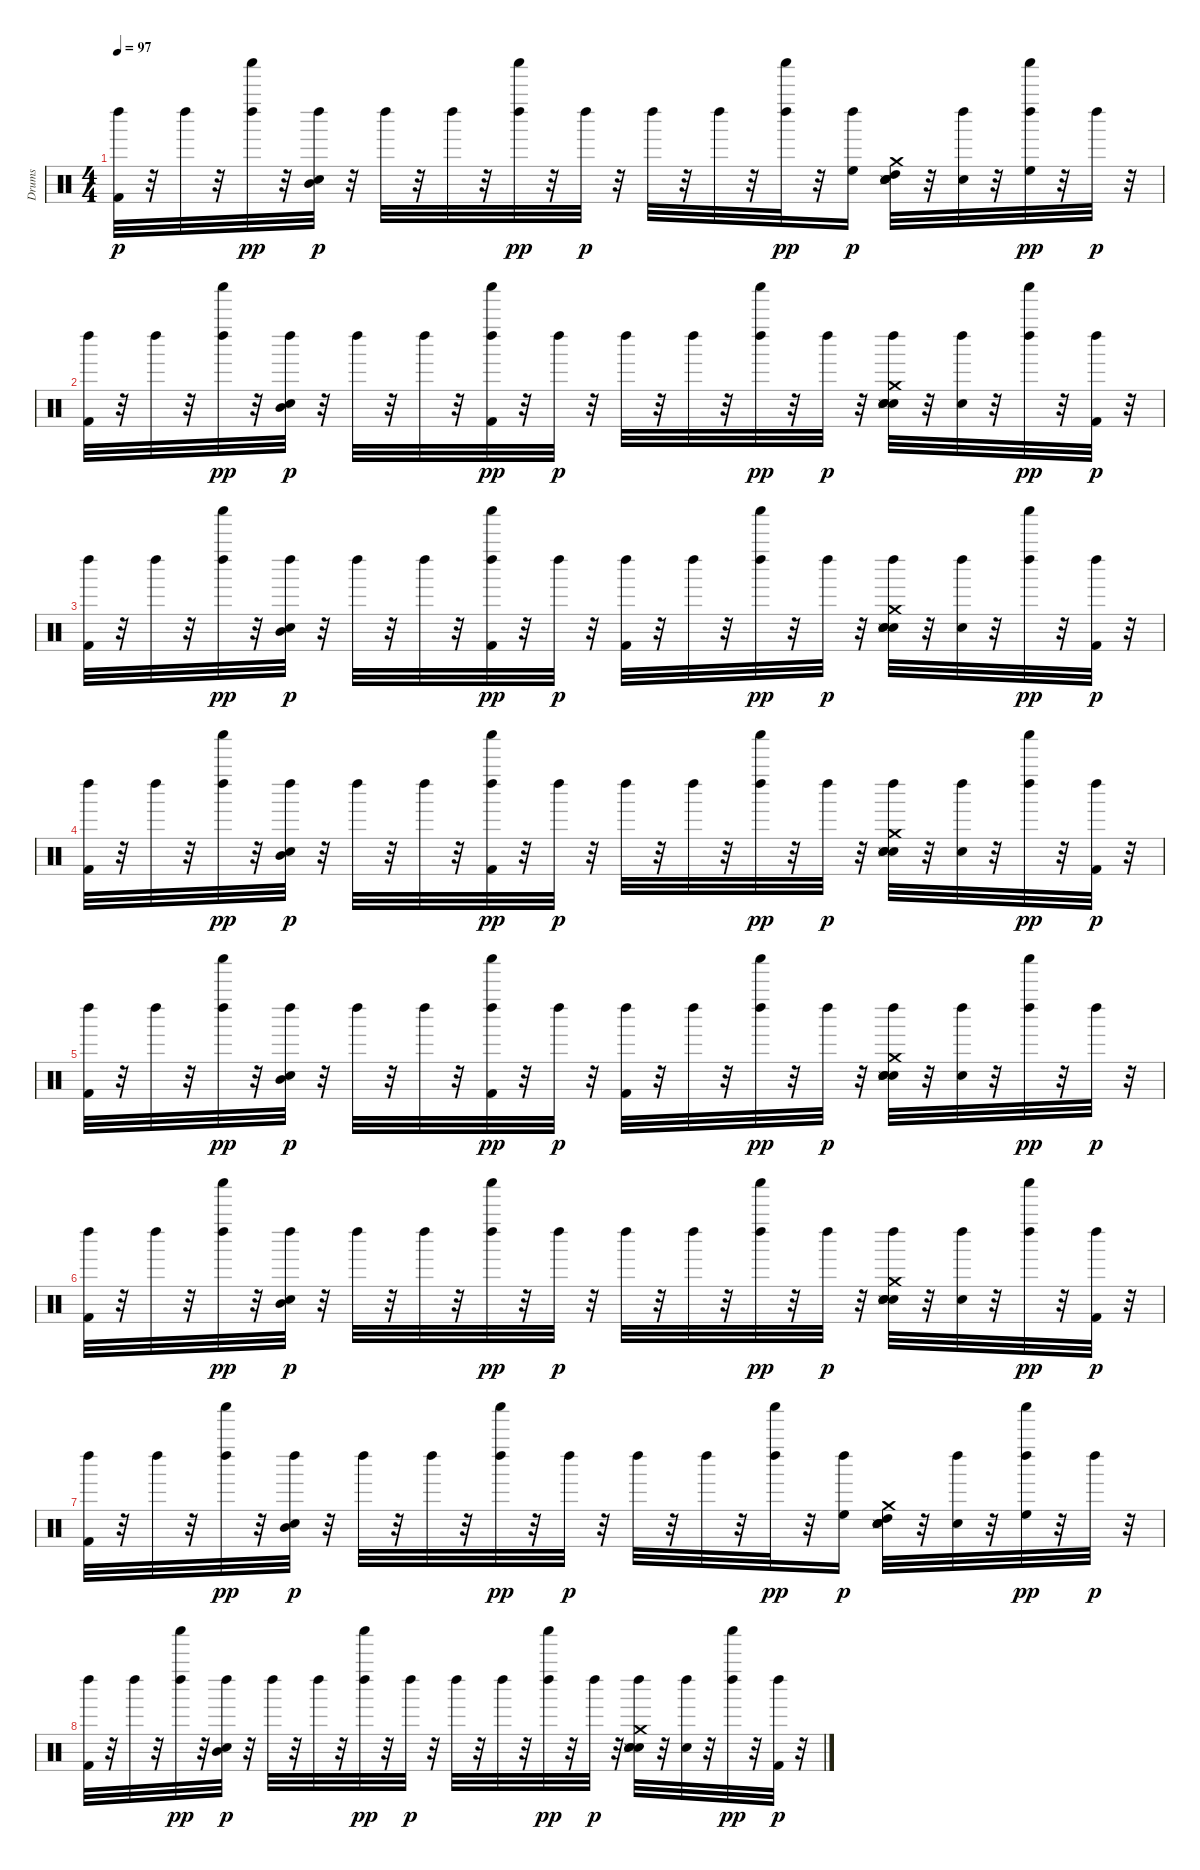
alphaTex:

\track ("Drums" "Drums") {instrument percussion}
\staff {score}
\articulation defaults
\ts (4 4)
\tempo 97
\clef neutral
\ks c
("Kick (hit) 2" "Left Maraca (hit)").32{dy p} r.32 "Left Maraca (hit)".32 r.32 ("Shaker (hit)" "Left Maraca (hit)").32{dy pp} r.32 ("Snare (hit) 2" "Mid Tom (hit)" "Left Maraca (hit)").32{dy p} r.32 "Left Maraca (hit)".32 r.32 "Left Maraca (hit)".32 r.32 ("Shaker (hit)" "Left Maraca (hit)").32{dy pp} r.32 "Left Maraca (hit)".32{dy p} r.32 "Left Maraca (hit)".32 r.32 "Left Maraca (hit)".32 r.32 ("Shaker (hit)" "Left Maraca (hit)").32{dy pp} r.32 ("High Floor Tom (hit)" "Left Maraca (hit)").16{dy p} ("Snare (hit) 2" "Electric Snare (hit)" "Hand Clap (hit)" "High Tom (hit)" "Snare (side stick) 3" "Crash medium (hit)").32 r.32 ("Left Maraca (hit)" "Hand Clap (hit)").32 r.32 ("High Floor Tom (hit)" "Shaker (hit)" "Left Maraca (hit)").32{dy pp} r.32 "Left Maraca (hit)".32{dy p} r.32 |
("Kick (hit) 2" "Left Maraca (hit)").32 r.32 "Left Maraca (hit)".32 r.32 ("Shaker (hit)" "Left Maraca (hit)").32{dy pp} r.32 ("Snare (hit) 2" "Mid Tom (hit)" "Left Maraca (hit)").32{dy p} r.32 "Left Maraca (hit)".32 r.32 "Left Maraca (hit)".32 r.32 ("Kick (hit) 2" "Shaker (hit)" "Left Maraca (hit)").32{dy pp} r.32 "Left Maraca (hit)".32{dy p} r.32 "Left Maraca (hit)".32 r.32 "Left Maraca (hit)".32 r.32 ("Shaker (hit)" "Left Maraca (hit)").32{dy pp} r.32 "Left Maraca (hit)".32{dy p} r.32 ("Snare (hit) 2" "Electric Snare (hit)" "Hand Clap (hit)" "Snare (side stick) 3" "Crash medium (hit)" "Left Maraca (hit)").32 r.32 ("Left Maraca (hit)" "Hand Clap (hit)").32 r.32 ("Shaker (hit)" "Left Maraca (hit)").32{dy pp} r.32 ("Kick (hit) 2" "Left Maraca (hit)").32{dy p} r.32 |
("Kick (hit) 2" "Left Maraca (hit)").32 r.32 "Left Maraca (hit)".32 r.32 ("Shaker (hit)" "Left Maraca (hit)").32{dy pp} r.32 ("Snare (hit) 2" "Mid Tom (hit)" "Left Maraca (hit)").32{dy p} r.32 "Left Maraca (hit)".32 r.32 "Left Maraca (hit)".32 r.32 ("Kick (hit) 2" "Shaker (hit)" "Left Maraca (hit)").32{dy pp} r.32 "Left Maraca (hit)".32{dy p} r.32 ("Kick (hit) 2" "Left Maraca (hit)").32 r.32 "Left Maraca (hit)".32 r.32 ("Shaker (hit)" "Left Maraca (hit)").32{dy pp} r.32 "Left Maraca (hit)".32{dy p} r.32 ("Snare (hit) 2" "Electric Snare (hit)" "Hand Clap (hit)" "Snare (side stick) 3" "Crash medium (hit)" "Left Maraca (hit)").32 r.32 ("Left Maraca (hit)" "Hand Clap (hit)").32 r.32 ("Shaker (hit)" "Left Maraca (hit)").32{dy pp} r.32 ("Kick (hit) 2" "Left Maraca (hit)").32{dy p} r.32 |
("Kick (hit) 2" "Left Maraca (hit)").32 r.32 "Left Maraca (hit)".32 r.32 ("Shaker (hit)" "Left Maraca (hit)").32{dy pp} r.32 ("Snare (hit) 2" "Mid Tom (hit)" "Left Maraca (hit)").32{dy p} r.32 "Left Maraca (hit)".32 r.32 "Left Maraca (hit)".32 r.32 ("Kick (hit) 2" "Shaker (hit)" "Left Maraca (hit)").32{dy pp} r.32 "Left Maraca (hit)".32{dy p} r.32 "Left Maraca (hit)".32 r.32 "Left Maraca (hit)".32 r.32 ("Shaker (hit)" "Left Maraca (hit)").32{dy pp} r.32 "Left Maraca (hit)".32{dy p} r.32 ("Snare (hit) 2" "Electric Snare (hit)" "Hand Clap (hit)" "Snare (side stick) 3" "Crash medium (hit)" "Left Maraca (hit)").32 r.32 ("Left Maraca (hit)" "Hand Clap (hit)").32 r.32 ("Shaker (hit)" "Left Maraca (hit)").32{dy pp} r.32 ("Kick (hit) 2" "Left Maraca (hit)").32{dy p} r.32 |
("Kick (hit) 2" "Left Maraca (hit)").32 r.32 "Left Maraca (hit)".32 r.32 ("Shaker (hit)" "Left Maraca (hit)").32{dy pp} r.32 ("Snare (hit) 2" "Mid Tom (hit)" "Left Maraca (hit)").32{dy p} r.32 "Left Maraca (hit)".32 r.32 "Left Maraca (hit)".32 r.32 ("Kick (hit) 2" "Shaker (hit)" "Left Maraca (hit)").32{dy pp} r.32 "Left Maraca (hit)".32{dy p} r.32 ("Kick (hit) 2" "Left Maraca (hit)").32 r.32 "Left Maraca (hit)".32 r.32 ("Shaker (hit)" "Left Maraca (hit)").32{dy pp} r.32 "Left Maraca (hit)".32{dy p} r.32 ("Snare (hit) 2" "Electric Snare (hit)" "Hand Clap (hit)" "Snare (side stick) 3" "Crash medium (hit)" "Left Maraca (hit)").32 r.32 ("Left Maraca (hit)" "Hand Clap (hit)").32 r.32 ("Shaker (hit)" "Left Maraca (hit)").32{dy pp} r.32 "Left Maraca (hit)".32{dy p} r.32 |
("Kick (hit) 2" "Left Maraca (hit)").32 r.32 "Left Maraca (hit)".32 r.32 ("Shaker (hit)" "Left Maraca (hit)").32{dy pp} r.32 ("Snare (hit) 2" "Mid Tom (hit)" "Left Maraca (hit)").32{dy p} r.32 "Left Maraca (hit)".32 r.32 "Left Maraca (hit)".32 r.32 ("Shaker (hit)" "Left Maraca (hit)").32{dy pp} r.32 "Left Maraca (hit)".32{dy p} r.32 "Left Maraca (hit)".32 r.32 "Left Maraca (hit)".32 r.32 ("Shaker (hit)" "Left Maraca (hit)").32{dy pp} r.32 "Left Maraca (hit)".32{dy p} r.32 ("Snare (hit) 2" "Electric Snare (hit)" "Hand Clap (hit)" "Snare (side stick) 3" "Crash medium (hit)" "Left Maraca (hit)").32 r.32 ("Left Maraca (hit)" "Hand Clap (hit)").32 r.32 ("Shaker (hit)" "Left Maraca (hit)").32{dy pp} r.32 ("Kick (hit) 2" "Left Maraca (hit)").32{dy p} r.32 |
("Kick (hit) 2" "Left Maraca (hit)").32 r.32 "Left Maraca (hit)".32 r.32 ("Shaker (hit)" "Left Maraca (hit)").32{dy pp} r.32 ("Snare (hit) 2" "Mid Tom (hit)" "Left Maraca (hit)").32{dy p} r.32 "Left Maraca (hit)".32 r.32 "Left Maraca (hit)".32 r.32 ("Shaker (hit)" "Left Maraca (hit)").32{dy pp} r.32 "Left Maraca (hit)".32{dy p} r.32 "Left Maraca (hit)".32 r.32 "Left Maraca (hit)".32 r.32 ("Shaker (hit)" "Left Maraca (hit)").32{dy pp} r.32 ("High Floor Tom (hit)" "Left Maraca (hit)").16{dy p} ("Snare (hit) 2" "Electric Snare (hit)" "Hand Clap (hit)" "High Tom (hit)" "Snare (side stick) 3" "Crash medium (hit)").32 r.32 ("Left Maraca (hit)" "Hand Clap (hit)").32 r.32 ("High Floor Tom (hit)" "Shaker (hit)" "Left Maraca (hit)").32{dy pp} r.32 "Left Maraca (hit)".32{dy p} r.32 |
("Kick (hit) 2" "Left Maraca (hit)").32 r.32 "Left Maraca (hit)".32 r.32 ("Shaker (hit)" "Left Maraca (hit)").32{dy pp} r.32 ("Snare (hit) 2" "Mid Tom (hit)" "Left Maraca (hit)").32{dy p} r.32 "Left Maraca (hit)".32 r.32 "Left Maraca (hit)".32 r.32 ("Shaker (hit)" "Left Maraca (hit)").32{dy pp} r.32 "Left Maraca (hit)".32{dy p} r.32 "Left Maraca (hit)".32 r.32 "Left Maraca (hit)".32 r.32 ("Shaker (hit)" "Left Maraca (hit)").32{dy pp} r.32 "Left Maraca (hit)".32{dy p} r.32 ("Snare (hit) 2" "Electric Snare (hit)" "Hand Clap (hit)" "Snare (side stick) 3" "Crash medium (hit)" "Left Maraca (hit)").32 r.32 ("Left Maraca (hit)" "Hand Clap (hit)").32 r.32 ("Shaker (hit)" "Left Maraca (hit)").32{dy pp} r.32 ("Kick (hit) 2" "Left Maraca (hit)").32{dy p} r.32
